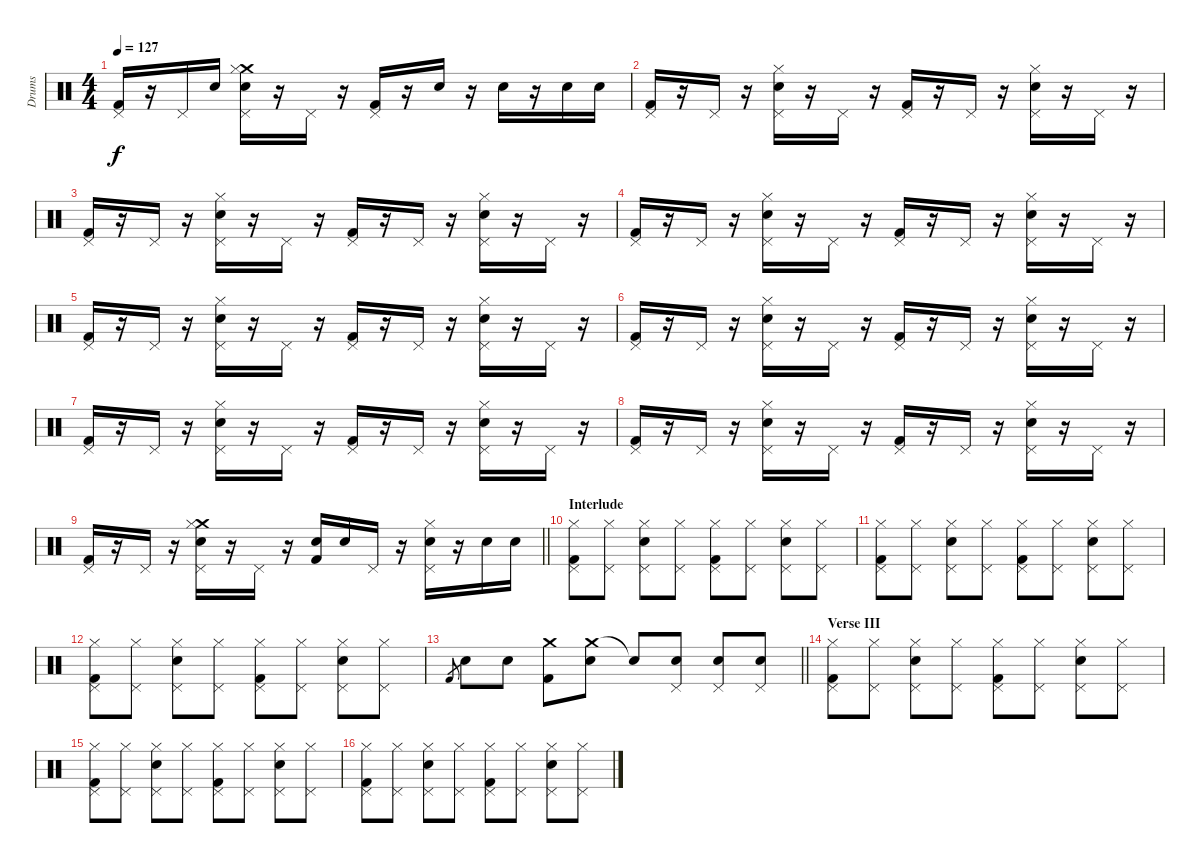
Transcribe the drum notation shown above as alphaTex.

\track ("Drums" "Drums") {instrument percussion}
\staff {score}
\articulation defaults
\ts (4 4)
\tempo 127
\clef neutral
\ks c
("Pedal Hi-Hat (hit)" "Kick (hit) 2").16{dy f} r.16 "Pedal Hi-Hat (hit)".16 "Electric Snare (hit)".16 ("Crash medium (hit)" "Hi-Hat (closed)" "Pedal Hi-Hat (hit)" "Electric Snare (hit)").16 r.16 "Pedal Hi-Hat (hit)".16 r.16 ("Pedal Hi-Hat (hit)" "Kick (hit) 2").16 r.16 "Electric Snare (hit)".16 r.16 "Electric Snare (hit)".16 r.16 "Electric Snare (hit)".16 "Electric Snare (hit)".16 |
("Pedal Hi-Hat (hit)" "Kick (hit) 2").16 r.16 "Pedal Hi-Hat (hit)".16 r.16 ("Hi-Hat (closed)" "Pedal Hi-Hat (hit)" "Electric Snare (hit)").16 r.16 "Pedal Hi-Hat (hit)".16 r.16 ("Pedal Hi-Hat (hit)" "Kick (hit) 2").16 r.16 "Pedal Hi-Hat (hit)".16 r.16 ("Hi-Hat (closed)" "Pedal Hi-Hat (hit)" "Electric Snare (hit)").16 r.16 "Pedal Hi-Hat (hit)".16 r.16 |
("Pedal Hi-Hat (hit)" "Kick (hit) 2").16 r.16 "Pedal Hi-Hat (hit)".16 r.16 ("Hi-Hat (closed)" "Pedal Hi-Hat (hit)" "Electric Snare (hit)").16 r.16 "Pedal Hi-Hat (hit)".16 r.16 ("Pedal Hi-Hat (hit)" "Kick (hit) 2").16 r.16 "Pedal Hi-Hat (hit)".16 r.16 ("Hi-Hat (closed)" "Pedal Hi-Hat (hit)" "Electric Snare (hit)").16 r.16 "Pedal Hi-Hat (hit)".16 r.16 |
("Pedal Hi-Hat (hit)" "Kick (hit) 2").16 r.16 "Pedal Hi-Hat (hit)".16 r.16 ("Hi-Hat (closed)" "Pedal Hi-Hat (hit)" "Electric Snare (hit)").16 r.16 "Pedal Hi-Hat (hit)".16 r.16 ("Pedal Hi-Hat (hit)" "Kick (hit) 2").16 r.16 "Pedal Hi-Hat (hit)".16 r.16 ("Hi-Hat (closed)" "Pedal Hi-Hat (hit)" "Electric Snare (hit)").16 r.16 "Pedal Hi-Hat (hit)".16 r.16 |
("Pedal Hi-Hat (hit)" "Kick (hit) 2").16 r.16 "Pedal Hi-Hat (hit)".16 r.16 ("Hi-Hat (closed)" "Pedal Hi-Hat (hit)" "Electric Snare (hit)").16 r.16 "Pedal Hi-Hat (hit)".16 r.16 ("Pedal Hi-Hat (hit)" "Kick (hit) 2").16 r.16 "Pedal Hi-Hat (hit)".16 r.16 ("Hi-Hat (closed)" "Pedal Hi-Hat (hit)" "Electric Snare (hit)").16 r.16 "Pedal Hi-Hat (hit)".16 r.16 |
("Pedal Hi-Hat (hit)" "Kick (hit) 2").16 r.16 "Pedal Hi-Hat (hit)".16 r.16 ("Hi-Hat (closed)" "Pedal Hi-Hat (hit)" "Electric Snare (hit)").16 r.16 "Pedal Hi-Hat (hit)".16 r.16 ("Pedal Hi-Hat (hit)" "Kick (hit) 2").16 r.16 "Pedal Hi-Hat (hit)".16 r.16 ("Hi-Hat (closed)" "Pedal Hi-Hat (hit)" "Electric Snare (hit)").16 r.16 "Pedal Hi-Hat (hit)".16 r.16 |
("Pedal Hi-Hat (hit)" "Kick (hit) 2").16 r.16 "Pedal Hi-Hat (hit)".16 r.16 ("Hi-Hat (closed)" "Pedal Hi-Hat (hit)" "Electric Snare (hit)").16 r.16 "Pedal Hi-Hat (hit)".16 r.16 ("Pedal Hi-Hat (hit)" "Kick (hit) 2").16 r.16 "Pedal Hi-Hat (hit)".16 r.16 ("Hi-Hat (closed)" "Pedal Hi-Hat (hit)" "Electric Snare (hit)").16 r.16 "Pedal Hi-Hat (hit)".16 r.16 |
("Pedal Hi-Hat (hit)" "Kick (hit) 2").16 r.16 "Pedal Hi-Hat (hit)".16 r.16 ("Hi-Hat (closed)" "Pedal Hi-Hat (hit)" "Electric Snare (hit)").16 r.16 "Pedal Hi-Hat (hit)".16 r.16 ("Pedal Hi-Hat (hit)" "Kick (hit) 2").16 r.16 "Pedal Hi-Hat (hit)".16 r.16 ("Hi-Hat (closed)" "Pedal Hi-Hat (hit)" "Electric Snare (hit)").16 r.16 "Pedal Hi-Hat (hit)".16 r.16 |
\barLineRight lightlight
("Pedal Hi-Hat (hit)" "Kick (hit) 2").16 r.16 "Pedal Hi-Hat (hit)".16 r.16 ("Crash medium (hit)" "Hi-Hat (closed)" "Pedal Hi-Hat (hit)" "Electric Snare (hit)").16 r.16 "Pedal Hi-Hat (hit)".16 r.16 ("Electric Snare (hit)" "Kick (hit) 2").16 "Electric Snare (hit)".16 "Pedal Hi-Hat (hit)".16 r.16 ("Hi-Hat (closed)" "Pedal Hi-Hat (hit)" "Electric Snare (hit)").16 r.16 "Electric Snare (hit)".16 "Electric Snare (hit)".16 |
\section ("" "Interlude")
("Pedal Hi-Hat (hit)" "Hi-Hat (closed)" "Kick (hit) 2").8 ("Pedal Hi-Hat (hit)" "Hi-Hat (closed)").8 ("Pedal Hi-Hat (hit)" "Hi-Hat (closed)" "Electric Snare (hit)").8 ("Pedal Hi-Hat (hit)" "Hi-Hat (closed)").8 ("Pedal Hi-Hat (hit)" "Hi-Hat (closed)" "Kick (hit) 2").8 ("Pedal Hi-Hat (hit)" "Hi-Hat (closed)").8 ("Pedal Hi-Hat (hit)" "Hi-Hat (closed)" "Electric Snare (hit)").8 ("Pedal Hi-Hat (hit)" "Hi-Hat (closed)").8 |
("Pedal Hi-Hat (hit)" "Hi-Hat (closed)" "Kick (hit) 2").8 ("Pedal Hi-Hat (hit)" "Hi-Hat (closed)").8 ("Pedal Hi-Hat (hit)" "Hi-Hat (closed)" "Electric Snare (hit)").8 ("Pedal Hi-Hat (hit)" "Hi-Hat (closed)").8 ("Pedal Hi-Hat (hit)" "Hi-Hat (closed)" "Kick (hit) 2").8 ("Pedal Hi-Hat (hit)" "Hi-Hat (closed)").8 ("Pedal Hi-Hat (hit)" "Hi-Hat (closed)" "Electric Snare (hit)").8 ("Pedal Hi-Hat (hit)" "Hi-Hat (closed)").8 |
("Pedal Hi-Hat (hit)" "Hi-Hat (closed)" "Kick (hit) 2").8 ("Pedal Hi-Hat (hit)" "Hi-Hat (closed)").8 ("Pedal Hi-Hat (hit)" "Hi-Hat (closed)" "Electric Snare (hit)").8 ("Pedal Hi-Hat (hit)" "Hi-Hat (closed)").8 ("Pedal Hi-Hat (hit)" "Hi-Hat (closed)" "Kick (hit) 2").8 ("Pedal Hi-Hat (hit)" "Hi-Hat (closed)").8 ("Pedal Hi-Hat (hit)" "Hi-Hat (closed)" "Electric Snare (hit)").8 ("Pedal Hi-Hat (hit)" "Hi-Hat (closed)").8 |
\barLineRight lightlight "Kick (hit) 2".8{gr} "Electric Snare (hit)".8 "Electric Snare (hit)".8
("Crash medium (hit)" "Kick (hit) 2").8 ("Crash medium (hit)" "Electric Snare (hit)").8 "Snare (hit)"{t}.8 ("Pedal Hi-Hat (hit)" "Electric Snare (hit)").8 ("Pedal Hi-Hat (hit)" "Electric Snare (hit)").8 ("Pedal Hi-Hat (hit)" "Electric Snare (hit)").8 |
\section ("" "Verse III")
("Pedal Hi-Hat (hit)" "Hi-Hat (closed)" "Kick (hit) 2").8 ("Pedal Hi-Hat (hit)" "Hi-Hat (closed)").8 ("Pedal Hi-Hat (hit)" "Hi-Hat (closed)" "Electric Snare (hit)").8 ("Pedal Hi-Hat (hit)" "Hi-Hat (closed)").8 ("Pedal Hi-Hat (hit)" "Hi-Hat (closed)" "Kick (hit) 2").8 ("Pedal Hi-Hat (hit)" "Hi-Hat (closed)").8 ("Pedal Hi-Hat (hit)" "Hi-Hat (closed)" "Electric Snare (hit)").8 ("Pedal Hi-Hat (hit)" "Hi-Hat (closed)").8 |
("Pedal Hi-Hat (hit)" "Hi-Hat (closed)" "Kick (hit) 2").8 ("Pedal Hi-Hat (hit)" "Hi-Hat (closed)").8 ("Pedal Hi-Hat (hit)" "Hi-Hat (closed)" "Electric Snare (hit)").8 ("Pedal Hi-Hat (hit)" "Hi-Hat (closed)").8 ("Pedal Hi-Hat (hit)" "Hi-Hat (closed)" "Kick (hit) 2").8 ("Pedal Hi-Hat (hit)" "Hi-Hat (closed)").8 ("Pedal Hi-Hat (hit)" "Hi-Hat (closed)" "Electric Snare (hit)").8 ("Pedal Hi-Hat (hit)" "Hi-Hat (closed)").8 |
("Pedal Hi-Hat (hit)" "Hi-Hat (closed)" "Kick (hit) 2").8 ("Pedal Hi-Hat (hit)" "Hi-Hat (closed)").8 ("Pedal Hi-Hat (hit)" "Hi-Hat (closed)" "Electric Snare (hit)").8 ("Pedal Hi-Hat (hit)" "Hi-Hat (closed)").8 ("Pedal Hi-Hat (hit)" "Hi-Hat (closed)" "Kick (hit) 2").8 ("Pedal Hi-Hat (hit)" "Hi-Hat (closed)").8 ("Pedal Hi-Hat (hit)" "Hi-Hat (closed)" "Electric Snare (hit)").8 ("Pedal Hi-Hat (hit)" "Hi-Hat (closed)").8
